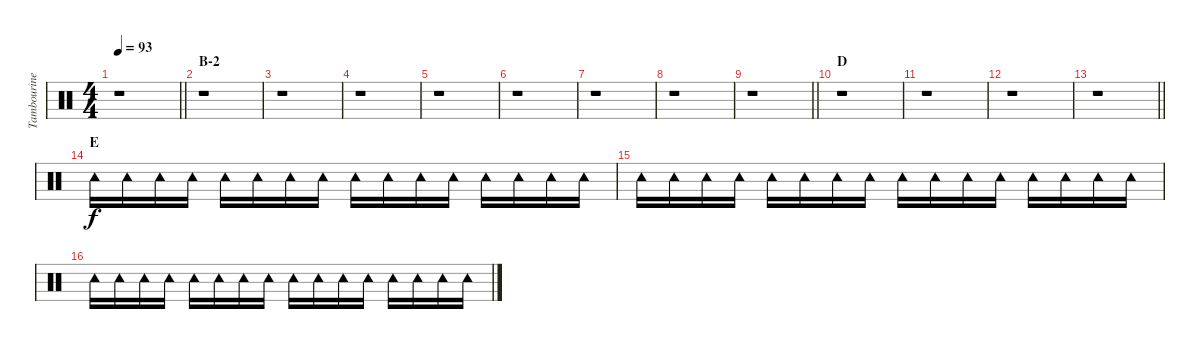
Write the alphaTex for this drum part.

\track ("Tambourine" "Tambourine") {instrument percussion}
\staff {score}
\articulation defaults
\ts (4 4)
\tempo 93
\clef neutral
\barLineRight lightlight
\ks c
r.1{dy f} |
\section ("" "B-2")
r.1 |
r.1 |
r.1 |
r.1 |
r.1 |
r.1 |
r.1 |
\barLineRight lightlight
r.1 |
\section ("" "D")
r.1 |
r.1 |
r.1 |
\barLineRight lightlight
r.1 |
\section ("" "E")
"Tambourine (hit)".16 "Tambourine (hit)".16 "Tambourine (hit)".16 "Tambourine (hit)".16 "Tambourine (hit)".16 "Tambourine (hit)".16 "Tambourine (hit)".16 "Tambourine (hit)".16 "Tambourine (hit)".16 "Tambourine (hit)".16 "Tambourine (hit)".16 "Tambourine (hit)".16 "Tambourine (hit)".16 "Tambourine (hit)".16 "Tambourine (hit)".16 "Tambourine (hit)".16 |
"Tambourine (hit)".16 "Tambourine (hit)".16 "Tambourine (hit)".16 "Tambourine (hit)".16 "Tambourine (hit)".16 "Tambourine (hit)".16 "Tambourine (hit)".16 "Tambourine (hit)".16 "Tambourine (hit)".16 "Tambourine (hit)".16 "Tambourine (hit)".16 "Tambourine (hit)".16 "Tambourine (hit)".16 "Tambourine (hit)".16 "Tambourine (hit)".16 "Tambourine (hit)".16 |
"Tambourine (hit)".16 "Tambourine (hit)".16 "Tambourine (hit)".16 "Tambourine (hit)".16 "Tambourine (hit)".16 "Tambourine (hit)".16 "Tambourine (hit)".16 "Tambourine (hit)".16 "Tambourine (hit)".16 "Tambourine (hit)".16 "Tambourine (hit)".16 "Tambourine (hit)".16 "Tambourine (hit)".16 "Tambourine (hit)".16 "Tambourine (hit)".16 "Tambourine (hit)".16
